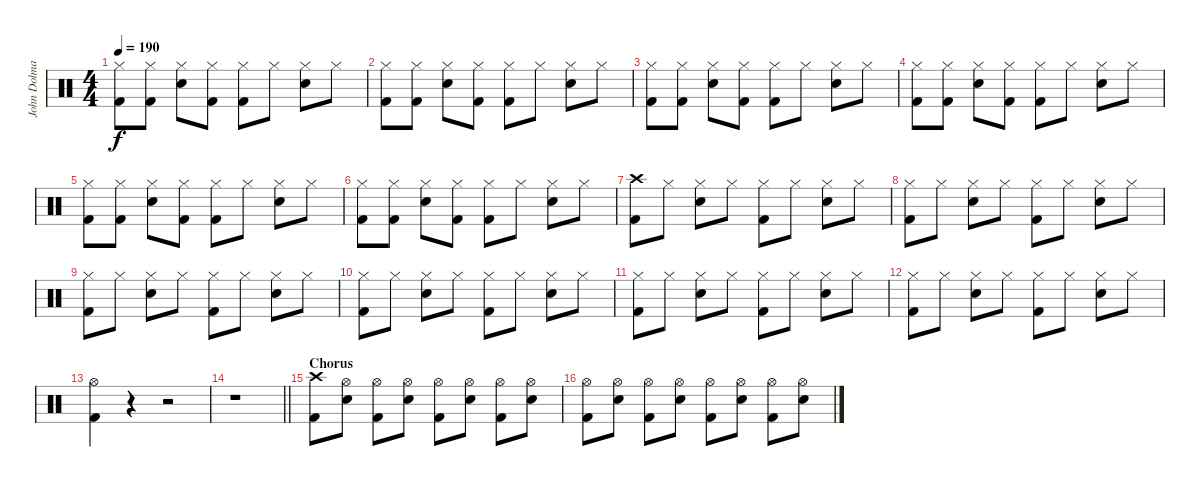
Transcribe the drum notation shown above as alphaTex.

\track ("John Dolmayan" "John Dolma") {instrument percussion}
\staff {score}
\articulation defaults
\ts (4 4)
\tempo 190
\clef neutral
\ks c
("Hi-Hat (closed)" "Kick (hit) 2").8{dy f} ("Hi-Hat (closed)" "Kick (hit) 2").8 ("Hi-Hat (closed)" "Electric Snare (hit)").8 ("Hi-Hat (closed)" "Kick (hit) 2").8 ("Hi-Hat (closed)" "Kick (hit) 2").8 "Hi-Hat (closed)".8 ("Hi-Hat (closed)" "Electric Snare (hit)").8 "Hi-Hat (closed)".8 |
("Hi-Hat (closed)" "Kick (hit) 2").8 ("Hi-Hat (closed)" "Kick (hit) 2").8 ("Hi-Hat (closed)" "Electric Snare (hit)").8 ("Hi-Hat (closed)" "Kick (hit) 2").8 ("Hi-Hat (closed)" "Kick (hit) 2").8 "Hi-Hat (closed)".8 ("Hi-Hat (closed)" "Electric Snare (hit)").8 "Hi-Hat (closed)".8 |
("Hi-Hat (closed)" "Kick (hit) 2").8 ("Hi-Hat (closed)" "Kick (hit) 2").8 ("Hi-Hat (closed)" "Electric Snare (hit)").8 ("Hi-Hat (closed)" "Kick (hit) 2").8 ("Hi-Hat (closed)" "Kick (hit) 2").8 "Hi-Hat (closed)".8 ("Hi-Hat (closed)" "Electric Snare (hit)").8 "Hi-Hat (closed)".8 |
("Hi-Hat (closed)" "Kick (hit) 2").8 ("Hi-Hat (closed)" "Kick (hit) 2").8 ("Hi-Hat (closed)" "Electric Snare (hit)").8 ("Hi-Hat (closed)" "Kick (hit) 2").8 ("Hi-Hat (closed)" "Kick (hit) 2").8 "Hi-Hat (closed)".8 ("Hi-Hat (closed)" "Electric Snare (hit)").8 "Hi-Hat (closed)".8 |
("Hi-Hat (closed)" "Kick (hit) 2").8 ("Hi-Hat (closed)" "Kick (hit) 2").8 ("Hi-Hat (closed)" "Electric Snare (hit)").8 ("Hi-Hat (closed)" "Kick (hit) 2").8 ("Hi-Hat (closed)" "Kick (hit) 2").8 "Hi-Hat (closed)".8 ("Hi-Hat (closed)" "Electric Snare (hit)").8 "Hi-Hat (closed)".8 |
("Hi-Hat (closed)" "Kick (hit) 2").8 ("Hi-Hat (closed)" "Kick (hit) 2").8 ("Hi-Hat (closed)" "Electric Snare (hit)").8 ("Hi-Hat (closed)" "Kick (hit) 2").8 ("Hi-Hat (closed)" "Kick (hit) 2").8 "Hi-Hat (closed)".8 ("Hi-Hat (closed)" "Electric Snare (hit)").8 "Hi-Hat (closed)".8 |
("Crash high (hit)" "Kick (hit) 2").8 "Hi-Hat (closed)".8 ("Hi-Hat (closed)" "Electric Snare (hit)").8 "Hi-Hat (closed)".8 ("Hi-Hat (closed)" "Kick (hit) 2").8 "Hi-Hat (closed)".8 ("Hi-Hat (closed)" "Electric Snare (hit)").8 "Hi-Hat (closed)".8 |
("Hi-Hat (closed)" "Kick (hit) 2").8 "Hi-Hat (closed)".8 ("Hi-Hat (closed)" "Electric Snare (hit)").8 "Hi-Hat (closed)".8 ("Hi-Hat (closed)" "Kick (hit) 2").8 "Hi-Hat (closed)".8 ("Hi-Hat (closed)" "Electric Snare (hit)").8 "Hi-Hat (closed)".8 |
("Hi-Hat (closed)" "Kick (hit) 2").8 "Hi-Hat (closed)".8 ("Hi-Hat (closed)" "Electric Snare (hit)").8 "Hi-Hat (closed)".8 ("Hi-Hat (closed)" "Kick (hit) 2").8 "Hi-Hat (closed)".8 ("Hi-Hat (closed)" "Electric Snare (hit)").8 "Hi-Hat (closed)".8 |
("Hi-Hat (closed)" "Kick (hit) 2").8 "Hi-Hat (closed)".8 ("Hi-Hat (closed)" "Electric Snare (hit)").8 "Hi-Hat (closed)".8 ("Hi-Hat (closed)" "Kick (hit) 2").8 "Hi-Hat (closed)".8 ("Hi-Hat (closed)" "Electric Snare (hit)").8 "Hi-Hat (closed)".8 |
("Hi-Hat (closed)" "Kick (hit) 2").8 "Hi-Hat (closed)".8 ("Hi-Hat (closed)" "Electric Snare (hit)").8 "Hi-Hat (closed)".8 ("Hi-Hat (closed)" "Kick (hit) 2").8 "Hi-Hat (closed)".8 ("Hi-Hat (closed)" "Electric Snare (hit)").8 "Hi-Hat (closed)".8 |
("Hi-Hat (closed)" "Kick (hit) 2").8 "Hi-Hat (closed)".8 ("Hi-Hat (closed)" "Electric Snare (hit)").8 "Hi-Hat (closed)".8 ("Hi-Hat (closed)" "Kick (hit) 2").8 "Hi-Hat (closed)".8 ("Hi-Hat (closed)" "Electric Snare (hit)").8 "Hi-Hat (closed)".8 |
("Hi-Hat (open)" "Kick (hit) 2").4 r.4 r.2 |
\barLineRight lightlight
r.1 |
\section ("" "Chorus")
("Crash high (hit)" "Kick (hit) 2").8 ("Hi-Hat (open)" "Electric Snare (hit)").8 ("Hi-Hat (open)" "Kick (hit) 2").8 ("Hi-Hat (open)" "Electric Snare (hit)").8 ("Hi-Hat (open)" "Kick (hit) 2").8 ("Hi-Hat (open)" "Electric Snare (hit)").8 ("Hi-Hat (open)" "Kick (hit) 2").8 ("Hi-Hat (open)" "Electric Snare (hit)").8 |
("Hi-Hat (open)" "Kick (hit) 2").8 ("Hi-Hat (open)" "Electric Snare (hit)").8 ("Hi-Hat (open)" "Kick (hit) 2").8 ("Hi-Hat (open)" "Electric Snare (hit)").8 ("Hi-Hat (open)" "Kick (hit) 2").8 ("Hi-Hat (open)" "Electric Snare (hit)").8 ("Hi-Hat (open)" "Kick (hit) 2").8 ("Hi-Hat (open)" "Electric Snare (hit)").8
